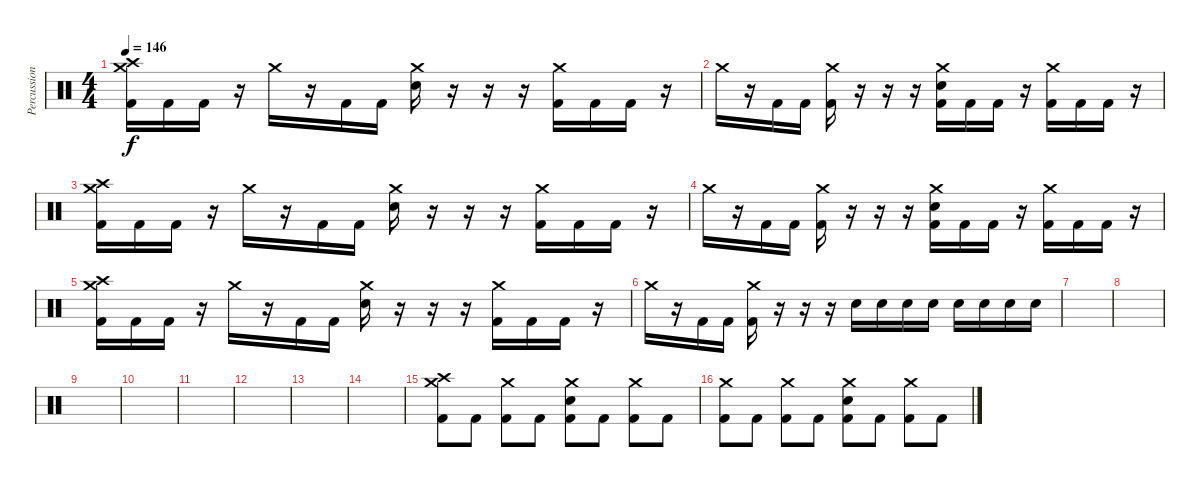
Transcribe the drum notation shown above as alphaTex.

\track ("Percussion" "Percussion") {instrument percussion}
\staff {score}
\articulation defaults
\ts (4 4)
\tempo 146
\clef neutral
\ks c
("Crash high (hit)" "Crash medium (hit)" "Kick (hit) 2").16{dy f} "Kick (hit) 2".16 "Kick (hit) 2".16 r.16 "Crash medium (hit)".16 r.16 "Kick (hit) 2".16 "Kick (hit) 2".16 ("Crash medium (hit)" "Snare (hit) 2").16 r.16 r.16 r.16 ("Crash medium (hit)" "Kick (hit) 2").16 "Kick (hit) 2".16 "Kick (hit) 2".16 r.16 |
"Crash medium (hit)".16 r.16 "Kick (hit) 2".16 "Kick (hit) 2".16 ("Crash medium (hit)" "Kick (hit) 2").16 r.16 r.16 r.16 ("Crash medium (hit)" "Snare (hit) 2" "Kick (hit) 2").16 "Kick (hit) 2".16 "Kick (hit) 2".16 r.16 ("Crash medium (hit)" "Kick (hit) 2").16 "Kick (hit) 2".16 "Kick (hit) 2".16 r.16 |
("Crash high (hit)" "Crash medium (hit)" "Kick (hit) 2").16 "Kick (hit) 2".16 "Kick (hit) 2".16 r.16 "Crash medium (hit)".16 r.16 "Kick (hit) 2".16 "Kick (hit) 2".16 ("Crash medium (hit)" "Snare (hit) 2").16 r.16 r.16 r.16 ("Crash medium (hit)" "Kick (hit) 2").16 "Kick (hit) 2".16 "Kick (hit) 2".16 r.16 |
"Crash medium (hit)".16 r.16 "Kick (hit) 2".16 "Kick (hit) 2".16 ("Crash medium (hit)" "Kick (hit) 2").16 r.16 r.16 r.16 ("Crash medium (hit)" "Snare (hit) 2" "Kick (hit) 2").16 "Kick (hit) 2".16 "Kick (hit) 2".16 r.16 ("Crash medium (hit)" "Kick (hit) 2").16 "Kick (hit) 2".16 "Kick (hit) 2".16 r.16 |
("Crash high (hit)" "Crash medium (hit)" "Kick (hit) 2").16 "Kick (hit) 2".16 "Kick (hit) 2".16 r.16 "Crash medium (hit)".16 r.16 "Kick (hit) 2".16 "Kick (hit) 2".16 ("Crash medium (hit)" "Snare (hit) 2").16 r.16 r.16 r.16 ("Crash medium (hit)" "Kick (hit) 2").16 "Kick (hit) 2".16 "Kick (hit) 2".16 r.16 |
"Crash medium (hit)".16 r.16 "Kick (hit) 2".16 "Kick (hit) 2".16 ("Crash medium (hit)" "Kick (hit) 2").16 r.16 r.16 r.16 "Snare (hit) 2".16 "Snare (hit) 2".16 "Snare (hit) 2".16 "Snare (hit) 2".16 "Snare (hit) 2".16 "Snare (hit) 2".16 "Snare (hit) 2".16 "Snare (hit) 2".16 |
|
|
|
|
|
|
|
|
("Crash high (hit)" "Crash medium (hit)" "Kick (hit) 2").8 "Kick (hit) 2".8 ("Crash medium (hit)" "Kick (hit) 2").8 "Kick (hit) 2".8 ("Crash medium (hit)" "Snare (hit) 2" "Kick (hit) 2").8 "Kick (hit) 2".8 ("Crash medium (hit)" "Kick (hit) 2").8 "Kick (hit) 2".8 |
("Crash medium (hit)" "Kick (hit) 2").8 "Kick (hit) 2".8 ("Crash medium (hit)" "Kick (hit) 2").8 "Kick (hit) 2".8 ("Crash medium (hit)" "Snare (hit) 2" "Kick (hit) 2").8 "Kick (hit) 2".8 ("Crash medium (hit)" "Kick (hit) 2").8 "Kick (hit) 2".8
